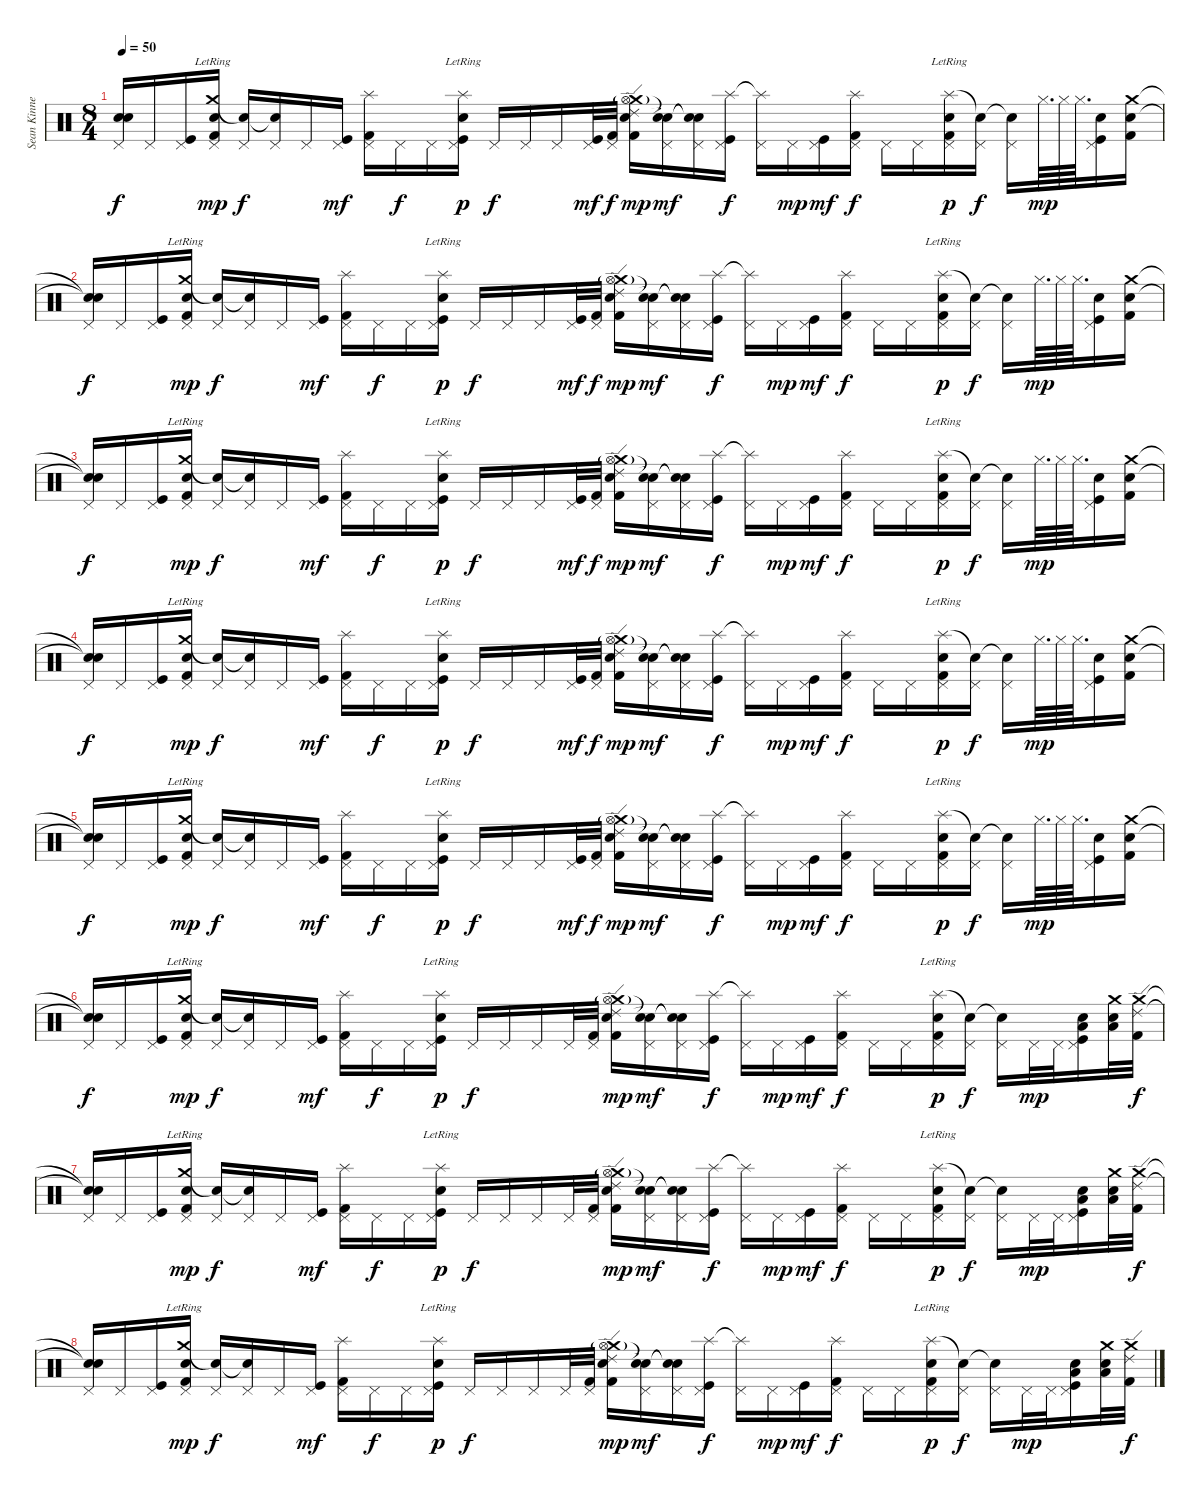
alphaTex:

\track ("Sean Kinney" "Sean Kinne") {instrument percussion}
\staff {score}
\articulation defaults
\ts (8 4)
\tempo 50
\clef neutral
\ks c
("Snare (hit)"{t} "Snare (hit)"{t} "Pedal Hi-Hat (hit)").16{dy f} "Pedal Hi-Hat (hit)".16 ("Pedal Hi-Hat (hit)" "Kick (hit)").16 ("Crash medium (hit)"{lr} "Snare (hit) 2" "Pedal Hi-Hat (hit)" "Kick (hit) 2").16{dy mp} ("Snare (hit)"{t} "Pedal Hi-Hat (hit)").16{dy f} ("Snare (hit)"{t} "Pedal Hi-Hat (hit)").16 "Pedal Hi-Hat (hit)".16 ("Pedal Hi-Hat (hit)" "Kick (hit)").16{dy mf} ("Splash (hit)" "Pedal Hi-Hat (hit)" "Kick (hit) 2").16 "Pedal Hi-Hat (hit)".16{dy f} "Pedal Hi-Hat (hit)".16 ("Splash (hit)"{lr} "Snare (hit) 2" "Pedal Hi-Hat (hit)" "Kick (hit)").16{dy p} "Pedal Hi-Hat (hit)".16{dy f} "Pedal Hi-Hat (hit)".16 "Pedal Hi-Hat (hit)".16 ("Pedal Hi-Hat (hit)" "Kick (hit)").32{dy mf} ("Pedal Hi-Hat (hit)" "Kick (hit) 2").32{dy f} ("Crash medium (hit)" "Ride (edge) 2" "Snare (hit) 2" "Hi-Hat (open)"{g} "Kick (hit) 2").16{dy mp} ("Snare (hit)"{t} "Snare (hit)"{t} "Pedal Hi-Hat (hit)").16{dy mf} ("Snare (hit)"{t} "Snare (hit)"{t} "Pedal Hi-Hat (hit)").16 ("Splash (hit)" "Pedal Hi-Hat (hit)" "Kick (hit)").16{dy f} ("Splash (hit)"{t} "Pedal Hi-Hat (hit)").16 "Pedal Hi-Hat (hit)".16{dy mp} ("Pedal Hi-Hat (hit)" "Kick (hit)").16{dy mf} ("Splash (hit)" "Pedal Hi-Hat (hit)" "Kick (hit) 2").16{dy f} "Pedal Hi-Hat (hit)".16 "Pedal Hi-Hat (hit)".16 ("Splash (hit)"{lr} "Snare (hit) 2" "Pedal Hi-Hat (hit)" "Kick (hit) 2").16{dy p} ("Snare (hit)"{t} "Pedal Hi-Hat (hit)").16{dy f} ("Snare (hit)"{t} "Pedal Hi-Hat (hit)").16 "Hi-Hat (closed)".64{d dy mp} "Hi-Hat (closed)".64 "Hi-Hat (closed)".64{d} ("Snare (hit) 2" "Pedal Hi-Hat (hit)" "Kick (hit)").16 ("Crash medium (hit)" "Snare (hit) 2" "Kick (hit) 2").16 |
("Snare (hit)"{t} "Snare (hit)"{t} "Pedal Hi-Hat (hit)").16{dy f} "Pedal Hi-Hat (hit)".16 ("Pedal Hi-Hat (hit)" "Kick (hit)").16 ("Crash medium (hit)"{lr} "Snare (hit) 2" "Pedal Hi-Hat (hit)" "Kick (hit) 2").16{dy mp} ("Snare (hit)"{t} "Pedal Hi-Hat (hit)").16{dy f} ("Snare (hit)"{t} "Pedal Hi-Hat (hit)").16 "Pedal Hi-Hat (hit)".16 ("Pedal Hi-Hat (hit)" "Kick (hit)").16{dy mf} ("Splash (hit)" "Pedal Hi-Hat (hit)" "Kick (hit) 2").16 "Pedal Hi-Hat (hit)".16{dy f} "Pedal Hi-Hat (hit)".16 ("Splash (hit)"{lr} "Snare (hit) 2" "Pedal Hi-Hat (hit)" "Kick (hit)").16{dy p} "Pedal Hi-Hat (hit)".16{dy f} "Pedal Hi-Hat (hit)".16 "Pedal Hi-Hat (hit)".16 ("Pedal Hi-Hat (hit)" "Kick (hit)").32{dy mf} ("Pedal Hi-Hat (hit)" "Kick (hit) 2").32{dy f} ("Crash medium (hit)" "Ride (edge) 2" "Snare (hit) 2" "Hi-Hat (open)"{g} "Kick (hit) 2").16{dy mp} ("Snare (hit)"{t} "Snare (hit)"{t} "Pedal Hi-Hat (hit)").16{dy mf} ("Snare (hit)"{t} "Snare (hit)"{t} "Pedal Hi-Hat (hit)").16 ("Splash (hit)" "Pedal Hi-Hat (hit)" "Kick (hit)").16{dy f} ("Splash (hit)"{t} "Pedal Hi-Hat (hit)").16 "Pedal Hi-Hat (hit)".16{dy mp} ("Pedal Hi-Hat (hit)" "Kick (hit)").16{dy mf} ("Splash (hit)" "Pedal Hi-Hat (hit)" "Kick (hit) 2").16{dy f} "Pedal Hi-Hat (hit)".16 "Pedal Hi-Hat (hit)".16 ("Splash (hit)"{lr} "Snare (hit) 2" "Pedal Hi-Hat (hit)" "Kick (hit) 2").16{dy p} ("Snare (hit)"{t} "Pedal Hi-Hat (hit)").16{dy f} ("Snare (hit)"{t} "Pedal Hi-Hat (hit)").16 "Hi-Hat (closed)".64{d dy mp} "Hi-Hat (closed)".64 "Hi-Hat (closed)".64{d} ("Snare (hit) 2" "Pedal Hi-Hat (hit)" "Kick (hit)").16 ("Crash medium (hit)" "Snare (hit) 2" "Kick (hit) 2").16 |
("Snare (hit)"{t} "Snare (hit)"{t} "Pedal Hi-Hat (hit)").16{dy f} "Pedal Hi-Hat (hit)".16 ("Pedal Hi-Hat (hit)" "Kick (hit)").16 ("Crash medium (hit)"{lr} "Snare (hit) 2" "Pedal Hi-Hat (hit)" "Kick (hit) 2").16{dy mp} ("Snare (hit)"{t} "Pedal Hi-Hat (hit)").16{dy f} ("Snare (hit)"{t} "Pedal Hi-Hat (hit)").16 "Pedal Hi-Hat (hit)".16 ("Pedal Hi-Hat (hit)" "Kick (hit)").16{dy mf} ("Splash (hit)" "Pedal Hi-Hat (hit)" "Kick (hit) 2").16 "Pedal Hi-Hat (hit)".16{dy f} "Pedal Hi-Hat (hit)".16 ("Splash (hit)"{lr} "Snare (hit) 2" "Pedal Hi-Hat (hit)" "Kick (hit)").16{dy p} "Pedal Hi-Hat (hit)".16{dy f} "Pedal Hi-Hat (hit)".16 "Pedal Hi-Hat (hit)".16 ("Pedal Hi-Hat (hit)" "Kick (hit)").32{dy mf} ("Pedal Hi-Hat (hit)" "Kick (hit) 2").32{dy f} ("Crash medium (hit)" "Ride (edge) 2" "Snare (hit) 2" "Hi-Hat (open)"{g} "Kick (hit) 2").16{dy mp} ("Snare (hit)"{t} "Snare (hit)"{t} "Pedal Hi-Hat (hit)").16{dy mf} ("Snare (hit)"{t} "Snare (hit)"{t} "Pedal Hi-Hat (hit)").16 ("Splash (hit)" "Pedal Hi-Hat (hit)" "Kick (hit)").16{dy f} ("Splash (hit)"{t} "Pedal Hi-Hat (hit)").16 "Pedal Hi-Hat (hit)".16{dy mp} ("Pedal Hi-Hat (hit)" "Kick (hit)").16{dy mf} ("Splash (hit)" "Pedal Hi-Hat (hit)" "Kick (hit) 2").16{dy f} "Pedal Hi-Hat (hit)".16 "Pedal Hi-Hat (hit)".16 ("Splash (hit)"{lr} "Snare (hit) 2" "Pedal Hi-Hat (hit)" "Kick (hit) 2").16{dy p} ("Snare (hit)"{t} "Pedal Hi-Hat (hit)").16{dy f} ("Snare (hit)"{t} "Pedal Hi-Hat (hit)").16 "Hi-Hat (closed)".64{d dy mp} "Hi-Hat (closed)".64 "Hi-Hat (closed)".64{d} ("Snare (hit) 2" "Pedal Hi-Hat (hit)" "Kick (hit)").16 ("Crash medium (hit)" "Snare (hit) 2" "Kick (hit) 2").16 |
("Snare (hit)"{t} "Snare (hit)"{t} "Pedal Hi-Hat (hit)").16{dy f} "Pedal Hi-Hat (hit)".16 ("Pedal Hi-Hat (hit)" "Kick (hit)").16 ("Crash medium (hit)"{lr} "Snare (hit) 2" "Pedal Hi-Hat (hit)" "Kick (hit) 2").16{dy mp} ("Snare (hit)"{t} "Pedal Hi-Hat (hit)").16{dy f} ("Snare (hit)"{t} "Pedal Hi-Hat (hit)").16 "Pedal Hi-Hat (hit)".16 ("Pedal Hi-Hat (hit)" "Kick (hit)").16{dy mf} ("Splash (hit)" "Pedal Hi-Hat (hit)" "Kick (hit) 2").16 "Pedal Hi-Hat (hit)".16{dy f} "Pedal Hi-Hat (hit)".16 ("Splash (hit)"{lr} "Snare (hit) 2" "Pedal Hi-Hat (hit)" "Kick (hit)").16{dy p} "Pedal Hi-Hat (hit)".16{dy f} "Pedal Hi-Hat (hit)".16 "Pedal Hi-Hat (hit)".16 ("Pedal Hi-Hat (hit)" "Kick (hit)").32{dy mf} ("Pedal Hi-Hat (hit)" "Kick (hit) 2").32{dy f} ("Crash medium (hit)" "Ride (edge) 2" "Snare (hit) 2" "Hi-Hat (open)"{g} "Kick (hit) 2").16{dy mp} ("Snare (hit)"{t} "Snare (hit)"{t} "Pedal Hi-Hat (hit)").16{dy mf} ("Snare (hit)"{t} "Snare (hit)"{t} "Pedal Hi-Hat (hit)").16 ("Splash (hit)" "Pedal Hi-Hat (hit)" "Kick (hit)").16{dy f} ("Splash (hit)"{t} "Pedal Hi-Hat (hit)").16 "Pedal Hi-Hat (hit)".16{dy mp} ("Pedal Hi-Hat (hit)" "Kick (hit)").16{dy mf} ("Splash (hit)" "Pedal Hi-Hat (hit)" "Kick (hit) 2").16{dy f} "Pedal Hi-Hat (hit)".16 "Pedal Hi-Hat (hit)".16 ("Splash (hit)"{lr} "Snare (hit) 2" "Pedal Hi-Hat (hit)" "Kick (hit) 2").16{dy p} ("Snare (hit)"{t} "Pedal Hi-Hat (hit)").16{dy f} ("Snare (hit)"{t} "Pedal Hi-Hat (hit)").16 "Hi-Hat (closed)".64{d dy mp} "Hi-Hat (closed)".64 "Hi-Hat (closed)".64{d} ("Snare (hit) 2" "Pedal Hi-Hat (hit)" "Kick (hit)").16 ("Crash medium (hit)" "Snare (hit) 2" "Kick (hit) 2").16 |
("Snare (hit)"{t} "Snare (hit)"{t} "Pedal Hi-Hat (hit)").16{dy f} "Pedal Hi-Hat (hit)".16 ("Pedal Hi-Hat (hit)" "Kick (hit)").16 ("Crash medium (hit)"{lr} "Snare (hit) 2" "Pedal Hi-Hat (hit)" "Kick (hit) 2").16{dy mp} ("Snare (hit)"{t} "Pedal Hi-Hat (hit)").16{dy f} ("Snare (hit)"{t} "Pedal Hi-Hat (hit)").16 "Pedal Hi-Hat (hit)".16 ("Pedal Hi-Hat (hit)" "Kick (hit)").16{dy mf} ("Splash (hit)" "Pedal Hi-Hat (hit)" "Kick (hit) 2").16 "Pedal Hi-Hat (hit)".16{dy f} "Pedal Hi-Hat (hit)".16 ("Splash (hit)"{lr} "Snare (hit) 2" "Pedal Hi-Hat (hit)" "Kick (hit)").16{dy p} "Pedal Hi-Hat (hit)".16{dy f} "Pedal Hi-Hat (hit)".16 "Pedal Hi-Hat (hit)".16 ("Pedal Hi-Hat (hit)" "Kick (hit)").32{dy mf} ("Pedal Hi-Hat (hit)" "Kick (hit) 2").32{dy f} ("Crash medium (hit)" "Ride (edge) 2" "Snare (hit) 2" "Hi-Hat (open)"{g} "Kick (hit) 2").16{dy mp} ("Snare (hit)"{t} "Snare (hit)"{t} "Pedal Hi-Hat (hit)").16{dy mf} ("Snare (hit)"{t} "Snare (hit)"{t} "Pedal Hi-Hat (hit)").16 ("Splash (hit)" "Pedal Hi-Hat (hit)" "Kick (hit)").16{dy f} ("Splash (hit)"{t} "Pedal Hi-Hat (hit)").16 "Pedal Hi-Hat (hit)".16{dy mp} ("Pedal Hi-Hat (hit)" "Kick (hit)").16{dy mf} ("Splash (hit)" "Pedal Hi-Hat (hit)" "Kick (hit) 2").16{dy f} "Pedal Hi-Hat (hit)".16 "Pedal Hi-Hat (hit)".16 ("Splash (hit)"{lr} "Snare (hit) 2" "Pedal Hi-Hat (hit)" "Kick (hit) 2").16{dy p} ("Snare (hit)"{t} "Pedal Hi-Hat (hit)").16{dy f} ("Snare (hit)"{t} "Pedal Hi-Hat (hit)").16 "Hi-Hat (closed)".64{d dy mp} "Hi-Hat (closed)".64 "Hi-Hat (closed)".64{d} ("Snare (hit) 2" "Pedal Hi-Hat (hit)" "Kick (hit)").16 ("Crash medium (hit)" "Snare (hit) 2" "Kick (hit) 2").16 |
("Snare (hit)"{t} "Snare (hit)"{t} "Pedal Hi-Hat (hit)").16{dy f} "Pedal Hi-Hat (hit)".16 ("Pedal Hi-Hat (hit)" "Kick (hit)").16 ("Crash medium (hit)"{lr} "Snare (hit) 2" "Pedal Hi-Hat (hit)" "Kick (hit) 2").16{dy mp} ("Snare (hit)"{t} "Pedal Hi-Hat (hit)").16{dy f} ("Snare (hit)"{t} "Pedal Hi-Hat (hit)").16 "Pedal Hi-Hat (hit)".16 ("Pedal Hi-Hat (hit)" "Kick (hit)").16{dy mf} ("Splash (hit)" "Pedal Hi-Hat (hit)" "Kick (hit) 2").16 "Pedal Hi-Hat (hit)".16{dy f} "Pedal Hi-Hat (hit)".16 ("Splash (hit)"{lr} "Snare (hit) 2" "Pedal Hi-Hat (hit)" "Kick (hit)").16{dy p} "Pedal Hi-Hat (hit)".16{dy f} "Pedal Hi-Hat (hit)".16 "Pedal Hi-Hat (hit)".16 "Pedal Hi-Hat (hit)".32 ("Pedal Hi-Hat (hit)" "Kick (hit) 2").32 ("Crash medium (hit)" "Ride (edge) 2" "Snare (hit) 2" "Hi-Hat (open)"{g} "Kick (hit) 2").16{dy mp} ("Snare (hit)"{t} "Snare (hit)"{t} "Pedal Hi-Hat (hit)").16{dy mf} ("Snare (hit)"{t} "Snare (hit)"{t} "Pedal Hi-Hat (hit)").16 ("Splash (hit)" "Pedal Hi-Hat (hit)" "Kick (hit)").16{dy f} ("Splash (hit)"{t} "Pedal Hi-Hat (hit)").16 "Pedal Hi-Hat (hit)".16{dy mp} ("Pedal Hi-Hat (hit)" "Kick (hit)").16{dy mf} ("Splash (hit)" "Pedal Hi-Hat (hit)" "Kick (hit) 2").16{dy f} "Pedal Hi-Hat (hit)".16 "Pedal Hi-Hat (hit)".16 ("Splash (hit)"{lr} "Snare (hit) 2" "Pedal Hi-Hat (hit)" "Kick (hit) 2").16{dy p} ("Snare (hit)"{t} "Pedal Hi-Hat (hit)").16{dy f} ("Snare (hit)"{t} "Pedal Hi-Hat (hit)").16 "Pedal Hi-Hat (hit)".32{dy mp} "Pedal Hi-Hat (hit)".32 ("Low Tom (hit)" "Snare (hit) 2" "Pedal Hi-Hat (hit)" "Kick (hit)").16 ("Crash medium (hit)" "Low Floor Tom (hit)" "Snare (hit) 2").32 ("Crash medium (hit)" "Ride (edge) 2" "Kick (hit) 2").32{dy f} |
("Snare (hit)"{t} "Snare (hit)"{t} "Pedal Hi-Hat (hit)").16 "Pedal Hi-Hat (hit)".16 ("Pedal Hi-Hat (hit)" "Kick (hit)").16 ("Crash medium (hit)"{lr} "Snare (hit) 2" "Pedal Hi-Hat (hit)" "Kick (hit) 2").16{dy mp} ("Snare (hit)"{t} "Pedal Hi-Hat (hit)").16{dy f} ("Snare (hit)"{t} "Pedal Hi-Hat (hit)").16 "Pedal Hi-Hat (hit)".16 ("Pedal Hi-Hat (hit)" "Kick (hit)").16{dy mf} ("Splash (hit)" "Pedal Hi-Hat (hit)" "Kick (hit) 2").16 "Pedal Hi-Hat (hit)".16{dy f} "Pedal Hi-Hat (hit)".16 ("Splash (hit)"{lr} "Snare (hit) 2" "Pedal Hi-Hat (hit)" "Kick (hit)").16{dy p} "Pedal Hi-Hat (hit)".16{dy f} "Pedal Hi-Hat (hit)".16 "Pedal Hi-Hat (hit)".16 "Pedal Hi-Hat (hit)".32 ("Pedal Hi-Hat (hit)" "Kick (hit) 2").32 ("Crash medium (hit)" "Ride (edge) 2" "Snare (hit) 2" "Hi-Hat (open)"{g} "Kick (hit) 2").16{dy mp} ("Snare (hit)"{t} "Snare (hit)"{t} "Pedal Hi-Hat (hit)").16{dy mf} ("Snare (hit)"{t} "Snare (hit)"{t} "Pedal Hi-Hat (hit)").16 ("Splash (hit)" "Pedal Hi-Hat (hit)" "Kick (hit)").16{dy f} ("Splash (hit)"{t} "Pedal Hi-Hat (hit)").16 "Pedal Hi-Hat (hit)".16{dy mp} ("Pedal Hi-Hat (hit)" "Kick (hit)").16{dy mf} ("Splash (hit)" "Pedal Hi-Hat (hit)" "Kick (hit) 2").16{dy f} "Pedal Hi-Hat (hit)".16 "Pedal Hi-Hat (hit)".16 ("Splash (hit)"{lr} "Snare (hit) 2" "Pedal Hi-Hat (hit)" "Kick (hit) 2").16{dy p} ("Snare (hit)"{t} "Pedal Hi-Hat (hit)").16{dy f} ("Snare (hit)"{t} "Pedal Hi-Hat (hit)").16 "Pedal Hi-Hat (hit)".32{dy mp} "Pedal Hi-Hat (hit)".32 ("Low Tom (hit)" "Snare (hit) 2" "Pedal Hi-Hat (hit)" "Kick (hit)").16 ("Crash medium (hit)" "Low Floor Tom (hit)" "Snare (hit) 2").32 ("Crash medium (hit)" "Ride (edge) 2" "Kick (hit) 2").32{dy f} |
("Snare (hit)"{t} "Snare (hit)"{t} "Pedal Hi-Hat (hit)").16 "Pedal Hi-Hat (hit)".16 ("Pedal Hi-Hat (hit)" "Kick (hit)").16 ("Crash medium (hit)"{lr} "Snare (hit) 2" "Pedal Hi-Hat (hit)" "Kick (hit) 2").16{dy mp} ("Snare (hit)"{t} "Pedal Hi-Hat (hit)").16{dy f} ("Snare (hit)"{t} "Pedal Hi-Hat (hit)").16 "Pedal Hi-Hat (hit)".16 ("Pedal Hi-Hat (hit)" "Kick (hit)").16{dy mf} ("Splash (hit)" "Pedal Hi-Hat (hit)" "Kick (hit) 2").16 "Pedal Hi-Hat (hit)".16{dy f} "Pedal Hi-Hat (hit)".16 ("Splash (hit)"{lr} "Snare (hit) 2" "Pedal Hi-Hat (hit)" "Kick (hit)").16{dy p} "Pedal Hi-Hat (hit)".16{dy f} "Pedal Hi-Hat (hit)".16 "Pedal Hi-Hat (hit)".16 "Pedal Hi-Hat (hit)".32 ("Pedal Hi-Hat (hit)" "Kick (hit) 2").32 ("Crash medium (hit)" "Ride (edge) 2" "Snare (hit) 2" "Hi-Hat (open)"{g} "Kick (hit) 2").16{dy mp} ("Snare (hit)"{t} "Snare (hit)"{t} "Pedal Hi-Hat (hit)").16{dy mf} ("Snare (hit)"{t} "Snare (hit)"{t} "Pedal Hi-Hat (hit)").16 ("Splash (hit)" "Pedal Hi-Hat (hit)" "Kick (hit)").16{dy f} ("Splash (hit)"{t} "Pedal Hi-Hat (hit)").16 "Pedal Hi-Hat (hit)".16{dy mp} ("Pedal Hi-Hat (hit)" "Kick (hit)").16{dy mf} ("Splash (hit)" "Pedal Hi-Hat (hit)" "Kick (hit) 2").16{dy f} "Pedal Hi-Hat (hit)".16 "Pedal Hi-Hat (hit)".16 ("Splash (hit)"{lr} "Snare (hit) 2" "Pedal Hi-Hat (hit)" "Kick (hit) 2").16{dy p} ("Snare (hit)"{t} "Pedal Hi-Hat (hit)").16{dy f} ("Snare (hit)"{t} "Pedal Hi-Hat (hit)").16 "Pedal Hi-Hat (hit)".32{dy mp} "Pedal Hi-Hat (hit)".32 ("Low Tom (hit)" "Snare (hit) 2" "Pedal Hi-Hat (hit)" "Kick (hit)").16 ("Crash medium (hit)" "Low Floor Tom (hit)" "Snare (hit) 2").32 ("Crash medium (hit)" "Ride (edge) 2" "Kick (hit) 2").32{dy f}
